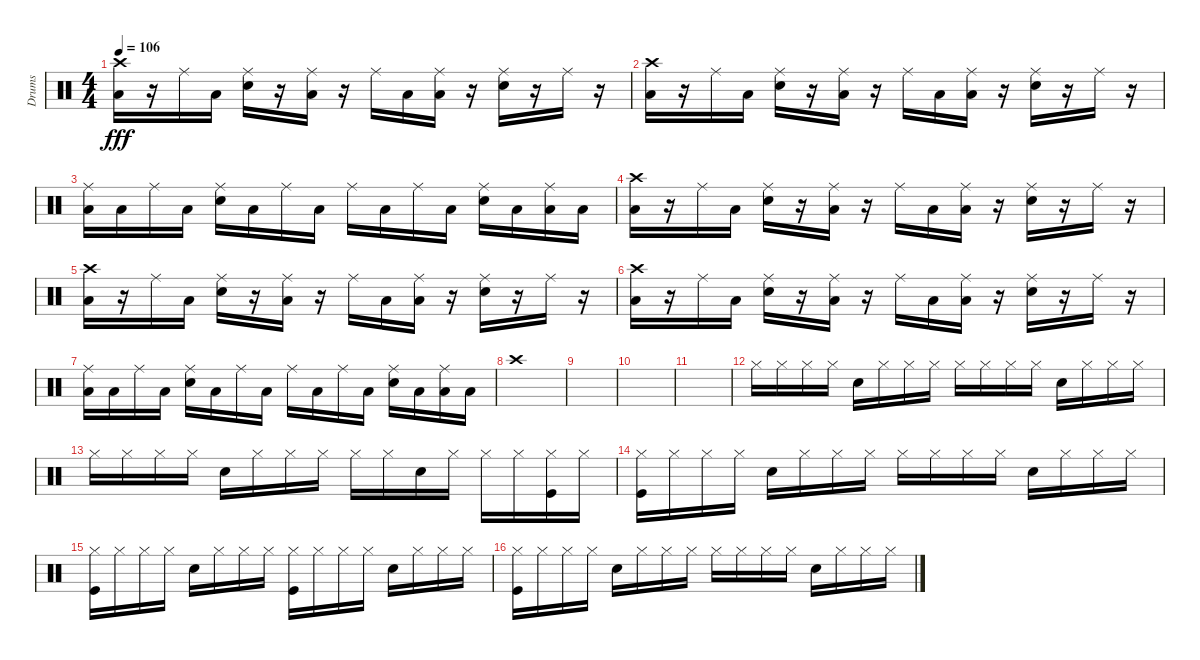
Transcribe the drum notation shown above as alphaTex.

\track ("Drums" "Drums") {instrument percussion}
\staff {score}
\articulation defaults
\ts (4 4)
\tempo 106
\clef neutral
\ks c
("Crash high (hit)" "Low Floor Tom (hit)").16{dy fff} r.16 "Ride (middle)".16 "Low Floor Tom (hit)".16 ("Ride (middle)" "Snare (hit) 2").16 r.16 ("Ride (middle)" "Low Floor Tom (hit)").16 r.16 "Ride (middle)".16 "Low Floor Tom (hit)".16 ("Ride (middle)" "Low Floor Tom (hit)").16 r.16 ("Ride (middle)" "Snare (hit) 2").16 r.16 "Ride (middle)".16 r.16 |
("Crash high (hit)" "Low Floor Tom (hit)").16 r.16 "Ride (middle)".16 "Low Floor Tom (hit)".16 ("Ride (middle)" "Snare (hit) 2").16 r.16 ("Ride (middle)" "Low Floor Tom (hit)").16 r.16 "Ride (middle)".16 "Low Floor Tom (hit)".16 ("Ride (middle)" "Low Floor Tom (hit)").16 r.16 ("Ride (middle)" "Snare (hit) 2").16 r.16 "Ride (middle)".16 r.16 |
("Ride (middle)" "Low Floor Tom (hit)").16 "Low Floor Tom (hit)".16 "Ride (middle)".16 "Low Floor Tom (hit)".16 ("Ride (middle)" "Snare (hit) 2").16 "Low Floor Tom (hit)".16 "Ride (middle)".16 "Low Floor Tom (hit)".16 "Ride (middle)".16 "Low Floor Tom (hit)".16 "Ride (middle)".16 "Low Floor Tom (hit)".16 ("Ride (middle)" "Snare (hit) 2").16 "Low Floor Tom (hit)".16 ("Ride (middle)" "Low Floor Tom (hit)").16 "Low Floor Tom (hit)".16 |
("Crash high (hit)" "Low Floor Tom (hit)").16 r.16 "Ride (middle)".16 "Low Floor Tom (hit)".16 ("Ride (middle)" "Snare (hit) 2").16 r.16 ("Ride (middle)" "Low Floor Tom (hit)").16 r.16 "Ride (middle)".16 "Low Floor Tom (hit)".16 ("Ride (middle)" "Low Floor Tom (hit)").16 r.16 ("Ride (middle)" "Snare (hit) 2").16 r.16 "Ride (middle)".16 r.16 |
("Crash high (hit)" "Low Floor Tom (hit)").16 r.16 "Ride (middle)".16 "Low Floor Tom (hit)".16 ("Ride (middle)" "Snare (hit) 2").16 r.16 ("Ride (middle)" "Low Floor Tom (hit)").16 r.16 "Ride (middle)".16 "Low Floor Tom (hit)".16 ("Ride (middle)" "Low Floor Tom (hit)").16 r.16 ("Ride (middle)" "Snare (hit) 2").16 r.16 "Ride (middle)".16 r.16 |
("Crash high (hit)" "Low Floor Tom (hit)").16 r.16 "Ride (middle)".16 "Low Floor Tom (hit)".16 ("Ride (middle)" "Snare (hit) 2").16 r.16 ("Ride (middle)" "Low Floor Tom (hit)").16 r.16 "Ride (middle)".16 "Low Floor Tom (hit)".16 ("Ride (middle)" "Low Floor Tom (hit)").16 r.16 ("Ride (middle)" "Snare (hit) 2").16 r.16 "Ride (middle)".16 r.16 |
("Ride (middle)" "Low Floor Tom (hit)").16 "Low Floor Tom (hit)".16 "Ride (middle)".16 "Low Floor Tom (hit)".16 ("Ride (middle)" "Snare (hit) 2").16 "Low Floor Tom (hit)".16 "Ride (middle)".16 "Low Floor Tom (hit)".16 "Ride (middle)".16 "Low Floor Tom (hit)".16 "Ride (middle)".16 "Low Floor Tom (hit)".16 ("Ride (middle)" "Snare (hit) 2").16 "Low Floor Tom (hit)".16 ("Ride (middle)" "Low Floor Tom (hit)").16 "Low Floor Tom (hit)".16 |
"Crash high (hit)".1 |
|
|
|
"Hi-Hat (closed)".16 "Hi-Hat (closed)".16 "Hi-Hat (closed)".16 "Hi-Hat (closed)".16 "Snare (hit) 2".16 "Hi-Hat (closed)".16 "Hi-Hat (closed)".16 "Hi-Hat (closed)".16 "Hi-Hat (closed)".16 "Hi-Hat (closed)".16 "Hi-Hat (closed)".16 "Hi-Hat (closed)".16 "Snare (hit) 2".16 "Hi-Hat (closed)".16 "Hi-Hat (closed)".16 "Hi-Hat (closed)".16 |
"Hi-Hat (closed)".16 "Hi-Hat (closed)".16 "Hi-Hat (closed)".16 "Hi-Hat (closed)".16 "Snare (hit) 2".16 "Hi-Hat (closed)".16 "Hi-Hat (closed)".16 "Hi-Hat (closed)".16 "Hi-Hat (closed)".16 "Hi-Hat (closed)".16 "Snare (hit) 2".16 "Hi-Hat (closed)".16 "Hi-Hat (closed)".16 "Hi-Hat (closed)".16 ("Hi-Hat (closed)" "Kick (hit)").16 "Hi-Hat (closed)".16 |
("Hi-Hat (closed)" "Kick (hit)").16 "Hi-Hat (closed)".16 "Hi-Hat (closed)".16 "Hi-Hat (closed)".16 "Snare (hit) 2".16 "Hi-Hat (closed)".16 "Hi-Hat (closed)".16 "Hi-Hat (closed)".16 "Hi-Hat (closed)".16 "Hi-Hat (closed)".16 "Hi-Hat (closed)".16 "Hi-Hat (closed)".16 "Snare (hit) 2".16 "Hi-Hat (closed)".16 "Hi-Hat (closed)".16 "Hi-Hat (closed)".16 |
("Hi-Hat (closed)" "Kick (hit)").16 "Hi-Hat (closed)".16 "Hi-Hat (closed)".16 "Hi-Hat (closed)".16 "Snare (hit) 2".16 "Hi-Hat (closed)".16 "Hi-Hat (closed)".16 "Hi-Hat (closed)".16 ("Hi-Hat (closed)" "Kick (hit)").16 "Hi-Hat (closed)".16 "Hi-Hat (closed)".16 "Hi-Hat (closed)".16 "Snare (hit) 2".16 "Hi-Hat (closed)".16 "Hi-Hat (closed)".16 "Hi-Hat (closed)".16 |
("Hi-Hat (closed)" "Kick (hit)").16 "Hi-Hat (closed)".16 "Hi-Hat (closed)".16 "Hi-Hat (closed)".16 "Snare (hit) 2".16 "Hi-Hat (closed)".16 "Hi-Hat (closed)".16 "Hi-Hat (closed)".16 "Hi-Hat (closed)".16 "Hi-Hat (closed)".16 "Hi-Hat (closed)".16 "Hi-Hat (closed)".16 "Snare (hit) 2".16 "Hi-Hat (closed)".16 "Hi-Hat (closed)".16 "Hi-Hat (closed)".16
